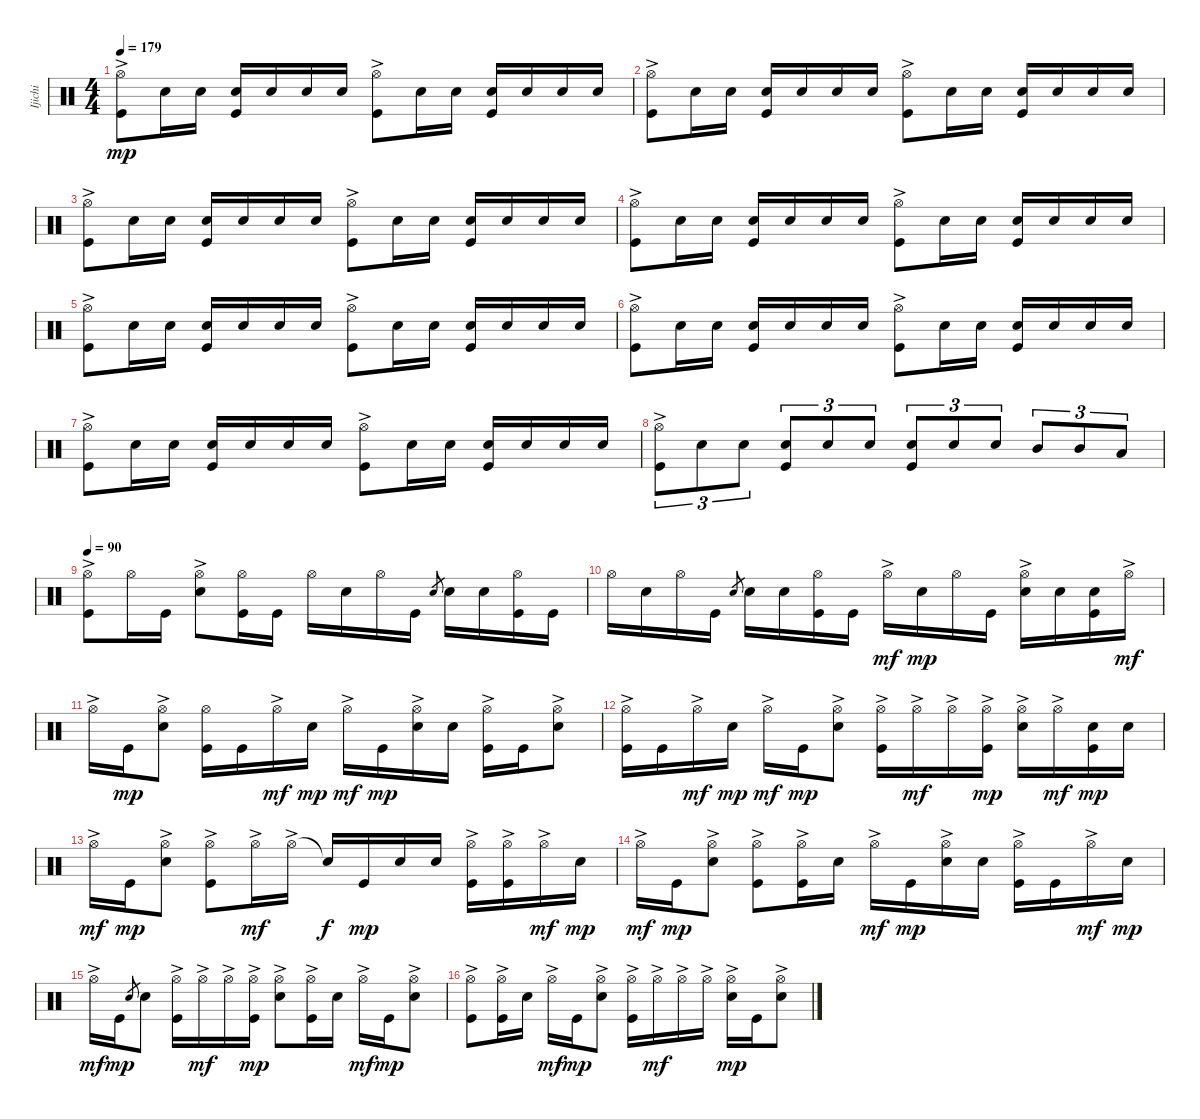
\track ("Ijichi" "Ijichi") {instrument percussion}
\staff {score}
\articulation defaults
\ts (4 4)
\tempo 179
\clef neutral
\ks c
("Hi-Hat (open)"{ac} "Kick (hit)").8{dy mp} "Snare (hit) 2".16 "Snare (hit) 2".16 ("Snare (hit) 2" "Kick (hit)").16 "Snare (hit) 2".16 "Snare (hit) 2".16 "Snare (hit) 2".16 ("Hi-Hat (open)"{ac} "Kick (hit)").8 "Snare (hit) 2".16 "Snare (hit) 2".16 ("Snare (hit) 2" "Kick (hit)").16 "Snare (hit) 2".16 "Snare (hit) 2".16 "Snare (hit) 2".16 |
("Hi-Hat (open)"{ac} "Kick (hit)").8 "Snare (hit) 2".16 "Snare (hit) 2".16 ("Snare (hit) 2" "Kick (hit)").16 "Snare (hit) 2".16 "Snare (hit) 2".16 "Snare (hit) 2".16 ("Hi-Hat (open)"{ac} "Kick (hit)").8 "Snare (hit) 2".16 "Snare (hit) 2".16 ("Snare (hit) 2" "Kick (hit)").16 "Snare (hit) 2".16 "Snare (hit) 2".16 "Snare (hit) 2".16 |
("Hi-Hat (open)"{ac} "Kick (hit)").8 "Snare (hit) 2".16 "Snare (hit) 2".16 ("Snare (hit) 2" "Kick (hit)").16 "Snare (hit) 2".16 "Snare (hit) 2".16 "Snare (hit) 2".16 ("Hi-Hat (open)"{ac} "Kick (hit)").8 "Snare (hit) 2".16 "Snare (hit) 2".16 ("Snare (hit) 2" "Kick (hit)").16 "Snare (hit) 2".16 "Snare (hit) 2".16 "Snare (hit) 2".16 |
("Hi-Hat (open)"{ac} "Kick (hit)").8 "Snare (hit) 2".16 "Snare (hit) 2".16 ("Snare (hit) 2" "Kick (hit)").16 "Snare (hit) 2".16 "Snare (hit) 2".16 "Snare (hit) 2".16 ("Hi-Hat (open)"{ac} "Kick (hit)").8 "Snare (hit) 2".16 "Snare (hit) 2".16 ("Snare (hit) 2" "Kick (hit)").16 "Snare (hit) 2".16 "Snare (hit) 2".16 "Snare (hit) 2".16 |
("Hi-Hat (open)"{ac} "Kick (hit)").8 "Snare (hit) 2".16 "Snare (hit) 2".16 ("Snare (hit) 2" "Kick (hit)").16 "Snare (hit) 2".16 "Snare (hit) 2".16 "Snare (hit) 2".16 ("Hi-Hat (open)"{ac} "Kick (hit)").8 "Snare (hit) 2".16 "Snare (hit) 2".16 ("Snare (hit) 2" "Kick (hit)").16 "Snare (hit) 2".16 "Snare (hit) 2".16 "Snare (hit) 2".16 |
("Hi-Hat (open)"{ac} "Kick (hit)").8 "Snare (hit) 2".16 "Snare (hit) 2".16 ("Snare (hit) 2" "Kick (hit)").16 "Snare (hit) 2".16 "Snare (hit) 2".16 "Snare (hit) 2".16 ("Hi-Hat (open)"{ac} "Kick (hit)").8 "Snare (hit) 2".16 "Snare (hit) 2".16 ("Snare (hit) 2" "Kick (hit)").16 "Snare (hit) 2".16 "Snare (hit) 2".16 "Snare (hit) 2".16 |
("Hi-Hat (open)"{ac} "Kick (hit)").8 "Snare (hit) 2".16 "Snare (hit) 2".16 ("Snare (hit) 2" "Kick (hit)").16 "Snare (hit) 2".16 "Snare (hit) 2".16 "Snare (hit) 2".16 ("Hi-Hat (open)"{ac} "Kick (hit)").8 "Snare (hit) 2".16 "Snare (hit) 2".16 ("Snare (hit) 2" "Kick (hit)").16 "Snare (hit) 2".16 "Snare (hit) 2".16 "Snare (hit) 2".16 |
("Hi-Hat (open)"{ac} "Kick (hit)").8{tu (3 2)} "Snare (hit) 2".8{tu (3 2)} "Snare (hit) 2".8{tu (3 2)} ("Snare (hit) 2" "Kick (hit)").8{tu (3 2)} "Snare (hit) 2".8{tu (3 2)} "Snare (hit) 2".8{tu (3 2)} ("Snare (hit) 2" "Kick (hit)").8{tu (3 2)} "Snare (hit) 2".8{tu (3 2)} "Snare (hit) 2".8{tu (3 2)} "Mid Tom (hit)".8{tu (3 2)} "Mid Tom (hit)".8{tu (3 2)} "Low Tom (hit)".8{tu (3 2)} |
\tempo 90
("Hi-Hat (open)"{ac} "Kick (hit)").8 "Hi-Hat (open)".16 "Kick (hit)".16 ("Hi-Hat (open)"{ac} "Snare (hit) 2").8 ("Hi-Hat (open)" "Kick (hit)").16 "Kick (hit)".16 "Hi-Hat (open)".16 "Snare (hit) 2".16 "Hi-Hat (open)".16 "Kick (hit)".16 "Snare (hit) 2".8{gr} "Snare (hit) 2".16 "Snare (hit) 2".16 ("Hi-Hat (open)" "Kick (hit)").16 "Kick (hit)".16 |
"Hi-Hat (open)".16 "Snare (hit) 2".16 "Hi-Hat (open)".16 "Kick (hit)".16 "Snare (hit) 2".8{gr} "Snare (hit) 2".16 "Snare (hit) 2".16 ("Hi-Hat (open)" "Kick (hit)").16 "Kick (hit)".16 "Hi-Hat (open)"{ac}.16{dy mf} "Snare (hit) 2".16{dy mp} "Hi-Hat (open)".16 "Kick (hit)".16 ("Hi-Hat (open)"{ac} "Snare (hit) 2").16 "Snare (hit) 2".16 ("Snare (hit) 2" "Kick (hit)").16 "Hi-Hat (open)"{ac}.16{dy mf} |
"Hi-Hat (open)"{ac}.16 "Kick (hit)".16{dy mp} ("Hi-Hat (open)"{ac} "Snare (hit) 2").8 ("Hi-Hat (open)" "Kick (hit)").16 "Kick (hit)".16 "Hi-Hat (open)"{ac}.16{dy mf} "Snare (hit) 2".16{dy mp} "Hi-Hat (open)"{ac}.16{dy mf} "Kick (hit)".16{dy mp} ("Hi-Hat (open)"{ac} "Snare (hit) 2").16 "Snare (hit) 2".16 ("Hi-Hat (open)"{ac} "Kick (hit)").16 "Kick (hit)".16 ("Hi-Hat (open)"{ac} "Snare (hit) 2").8 |
("Hi-Hat (open)"{ac} "Kick (hit)").16 "Kick (hit)".16 "Hi-Hat (open)"{ac}.16{dy mf} "Snare (hit) 2".16{dy mp} "Hi-Hat (open)"{ac}.16{dy mf} "Kick (hit)".16{dy mp} ("Hi-Hat (open)"{ac} "Snare (hit) 2").8 ("Hi-Hat (open)"{ac} "Kick (hit)").16 "Hi-Hat (open)"{ac}.16{dy mf} "Hi-Hat (open)"{ac}.16 ("Hi-Hat (open)"{ac} "Kick (hit)").16{dy mp} ("Hi-Hat (open)"{ac} "Snare (hit) 2").16 "Hi-Hat (open)"{ac}.16{dy mf} ("Snare (hit) 2" "Kick (hit)").16{dy mp} "Snare (hit) 2".16 |
"Hi-Hat (open)"{ac}.16{dy mf} "Kick (hit)".16{dy mp} ("Hi-Hat (open)"{ac} "Snare (hit) 2").8 ("Hi-Hat (open)"{ac} "Kick (hit)").8 "Hi-Hat (open)"{ac}.16{dy mf} "Hi-Hat (open)"{ac}.16 "Snare (hit)"{t}.16{dy f} "Kick (hit)".16{dy mp} "Snare (hit) 2".16 "Snare (hit) 2".16 ("Hi-Hat (open)"{ac} "Kick (hit)").16 ("Hi-Hat (open)"{ac} "Kick (hit)").16 "Hi-Hat (open)"{ac}.16{dy mf} "Snare (hit) 2".16{dy mp} |
"Hi-Hat (open)"{ac}.16{dy mf} "Kick (hit)".16{dy mp} ("Hi-Hat (open)"{ac} "Snare (hit) 2").8 ("Hi-Hat (open)"{ac} "Kick (hit)").8 ("Hi-Hat (open)"{ac} "Kick (hit)").16 "Snare (hit) 2".16 "Hi-Hat (open)"{ac}.16{dy mf} "Kick (hit)".16{dy mp} ("Hi-Hat (open)"{ac} "Snare (hit) 2").16 "Snare (hit) 2".16 ("Hi-Hat (open)"{ac} "Kick (hit)").16 "Kick (hit)".16 "Hi-Hat (open)"{ac}.16{dy mf} "Snare (hit) 2".16{dy mp} |
"Hi-Hat (open)"{ac}.16{dy mf} "Kick (hit)".16{dy mp} "Snare (hit) 2".8{gr} "Snare (hit) 2".8 ("Hi-Hat (open)"{ac} "Kick (hit)").16 "Hi-Hat (open)"{ac}.16{dy mf} "Hi-Hat (open)"{ac}.16 ("Hi-Hat (open)"{ac} "Kick (hit)").16{dy mp} ("Hi-Hat (open)"{ac} "Snare (hit) 2").8 ("Hi-Hat (open)"{ac} "Kick (hit)").16 "Snare (hit) 2".16 "Hi-Hat (open)"{ac}.16{dy mf} "Kick (hit)".16{dy mp} ("Hi-Hat (open)"{ac} "Snare (hit) 2").8 |
("Hi-Hat (open)"{ac} "Kick (hit)").8 ("Hi-Hat (open)"{ac} "Kick (hit)").16 "Snare (hit) 2".16 "Hi-Hat (open)"{ac}.16{dy mf} "Kick (hit)".16{dy mp} ("Hi-Hat (open)"{ac} "Snare (hit) 2").8 ("Hi-Hat (open)"{ac} "Kick (hit)").16 "Hi-Hat (open)"{ac}.16{dy mf} "Hi-Hat (open)"{ac}.16 "Hi-Hat (open)"{ac}.16 ("Hi-Hat (open)"{ac} "Snare (hit) 2").16{dy mp} "Kick (hit)".16 ("Hi-Hat (open)"{ac} "Snare (hit) 2").8
